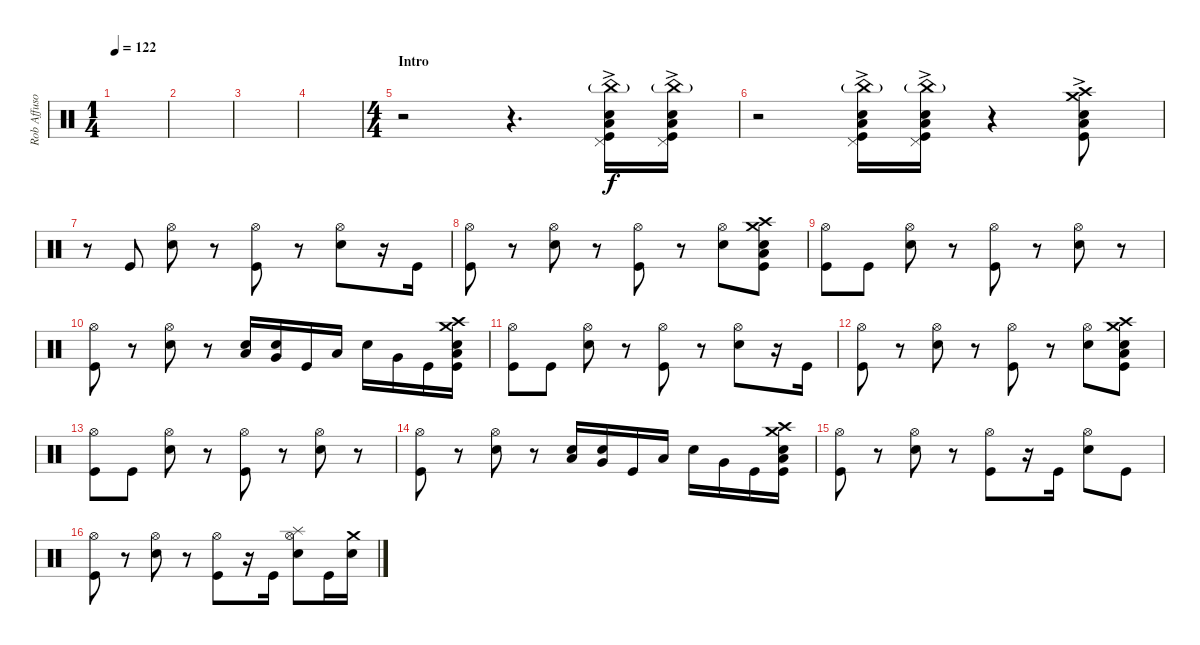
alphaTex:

\track ("Rob Affuso - Drums" "Rob Affuso") {instrument percussion}
\staff {score}
\articulation defaults
\ts (1 4)
\tempo 122
\clef neutral
\ks c
|
|
|
|
\ts (4 4)
\section ("" "Intro")
r.2 r.4{d} ("China (hit)"{g} "Pedal Hi-Hat (hit)" "Snare (hit) 2" "Low Floor Tom (hit)" "Kick (hit)"{ac}).16 ("China (hit)"{g} "Pedal Hi-Hat (hit)" "Snare (hit) 2" "Low Floor Tom (hit)" "Kick (hit)"{ac}).16 |
r.2 ("China (hit)"{g} "Pedal Hi-Hat (hit)" "Snare (hit) 2" "Low Floor Tom (hit)" "Kick (hit)"{ac}).16 ("China (hit)"{g} "Pedal Hi-Hat (hit)" "Snare (hit) 2" "Low Floor Tom (hit)" "Kick (hit)"{ac}).16 r.4 ("Crash medium (hit)" "Crash high (hit)" "Snare (hit) 2" "Low Floor Tom (hit)" "Kick (hit)"{ac}).8 |
r.8 "Kick (hit)".8{dy f} ("Hi-Hat (open)" "Snare (hit) 2").8 r.8 ("Hi-Hat (open)" "Kick (hit)").8 r.8 ("Hi-Hat (open)" "Snare (hit) 2").8 r.16 "Kick (hit)".16 |
("Hi-Hat (open)" "Kick (hit)").8 r.8 ("Hi-Hat (open)" "Snare (hit) 2").8 r.8 ("Hi-Hat (open)" "Kick (hit)").8 r.8 ("Hi-Hat (open)" "Snare (hit) 2").8 ("Crash medium (hit)" "Crash high (hit)" "Snare (hit) 2" "Low Floor Tom (hit)" "Kick (hit)").8 |
("Hi-Hat (open)" "Kick (hit)").8 "Kick (hit)".8 ("Hi-Hat (open)" "Snare (hit) 2").8 r.8 ("Hi-Hat (open)" "Kick (hit)").8 r.8 ("Hi-Hat (open)" "Snare (hit) 2").8 r.8 |
("Hi-Hat (open)" "Kick (hit)").8 r.8 ("Hi-Hat (open)" "Snare (hit) 2").8 r.8 ("Low Tom (hit)" "Snare (hit) 2").16 ("Very Low Tom (hit)" "Snare (hit) 2").16 "Kick (hit)".16 "Low Tom (hit)".16 "Snare (hit) 2".16 "Very Low Tom (hit)".16 "Kick (hit)".16 ("Crash high (hit)" "Crash medium (hit)" "Snare (hit) 2" "Low Floor Tom (hit)" "Kick (hit)").16 |
("Hi-Hat (open)" "Kick (hit)").8 "Kick (hit)".8 ("Hi-Hat (open)" "Snare (hit) 2").8 r.8 ("Hi-Hat (open)" "Kick (hit)").8 r.8 ("Hi-Hat (open)" "Snare (hit) 2").8 r.16 "Kick (hit)".16 |
("Hi-Hat (open)" "Kick (hit)").8 r.8 ("Hi-Hat (open)" "Snare (hit) 2").8 r.8 ("Hi-Hat (open)" "Kick (hit)").8 r.8 ("Hi-Hat (open)" "Snare (hit) 2").8 ("Crash medium (hit)" "Crash high (hit)" "Snare (hit) 2" "Low Floor Tom (hit)" "Kick (hit)").8 |
("Hi-Hat (open)" "Kick (hit)").8 "Kick (hit)".8 ("Hi-Hat (open)" "Snare (hit) 2").8 r.8 ("Hi-Hat (open)" "Kick (hit)").8 r.8 ("Hi-Hat (open)" "Snare (hit) 2").8 r.8 |
("Hi-Hat (open)" "Kick (hit)").8 r.8 ("Hi-Hat (open)" "Snare (hit) 2").8 r.8 ("Low Tom (hit)" "Snare (hit) 2").16 ("Very Low Tom (hit)" "Snare (hit) 2").16 "Kick (hit)".16 "Low Tom (hit)".16 "Snare (hit) 2".16 "Very Low Tom (hit)".16 "Kick (hit)".16 ("Crash medium (hit)" "Crash high (hit)" "Snare (hit) 2" "Low Floor Tom (hit)" "Kick (hit)").16 |
("Hi-Hat (open)" "Kick (hit)").8 r.8 ("Hi-Hat (open)" "Snare (hit) 2").8 r.8 ("Hi-Hat (open)" "Kick (hit)").8 r.16 "Kick (hit)".16 ("Hi-Hat (open)" "Snare (hit) 2").8 "Kick (hit)".8 |
("Hi-Hat (open)" "Kick (hit)").8 r.8 ("Hi-Hat (open)" "Snare (hit) 2").8 r.8 ("Hi-Hat (open)" "Kick (hit)").8 r.16 "Kick (hit)".16 ("Hi-Hat (open)" "Splash (hit)" "Snare (hit) 2").8 "Kick (hit)".16 ("Crash medium (hit)" "Snare (hit) 2").16
